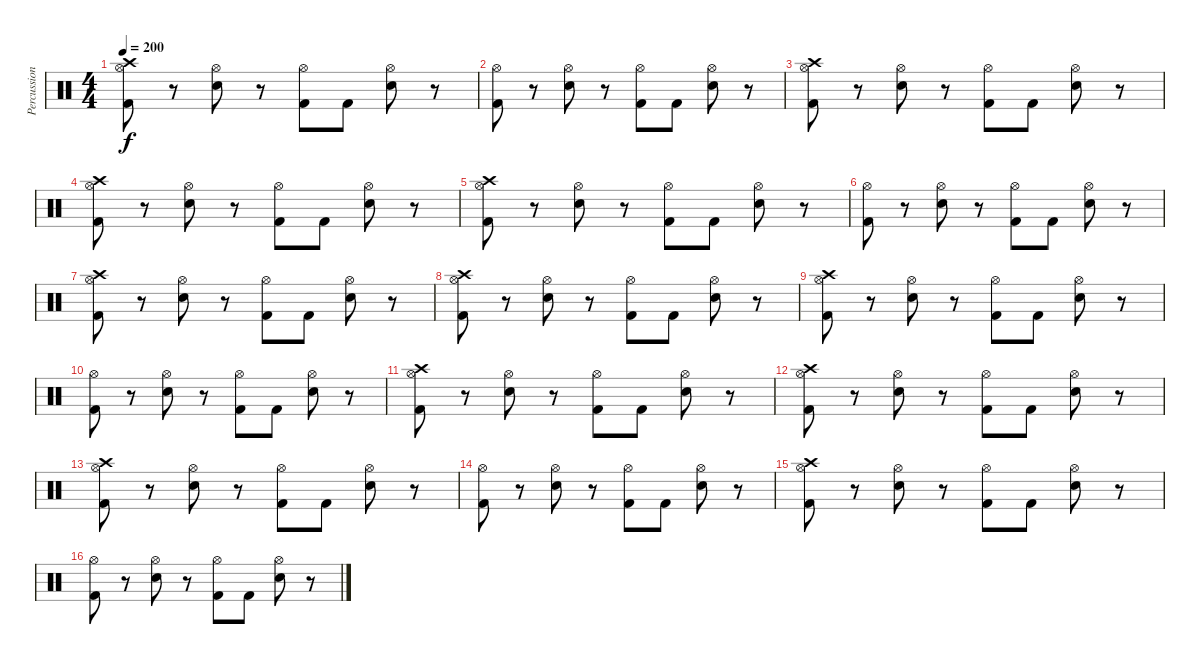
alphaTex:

\track ("Percussioni" "Percussion") {instrument percussion}
\staff {score}
\articulation defaults
\ts (4 4)
\tempo 200
\clef neutral
\ks c
("Crash high (hit)" "Kick (hit) 2" "Hi-Hat (open)").8{dy f} r.8 ("Snare (hit) 2" "Hi-Hat (open)").8 r.8 ("Kick (hit) 2" "Hi-Hat (open)").8 "Kick (hit) 2".8 ("Snare (hit) 2" "Hi-Hat (open)").8 r.8 |
("Kick (hit) 2" "Hi-Hat (open)").8 r.8 ("Snare (hit) 2" "Hi-Hat (open)").8 r.8 ("Kick (hit) 2" "Hi-Hat (open)").8 "Kick (hit) 2".8 ("Snare (hit) 2" "Hi-Hat (open)").8 r.8 |
("Crash high (hit)" "Kick (hit) 2" "Hi-Hat (open)").8 r.8 ("Snare (hit) 2" "Hi-Hat (open)").8 r.8 ("Kick (hit) 2" "Hi-Hat (open)").8 "Kick (hit) 2".8 ("Snare (hit) 2" "Hi-Hat (open)").8 r.8 |
("Crash high (hit)" "Kick (hit) 2" "Hi-Hat (open)").8 r.8 ("Snare (hit) 2" "Hi-Hat (open)").8 r.8 ("Kick (hit) 2" "Hi-Hat (open)").8 "Kick (hit) 2".8 ("Snare (hit) 2" "Hi-Hat (open)").8 r.8 |
("Crash high (hit)" "Kick (hit) 2" "Hi-Hat (open)").8 r.8 ("Snare (hit) 2" "Hi-Hat (open)").8 r.8 ("Kick (hit) 2" "Hi-Hat (open)").8 "Kick (hit) 2".8 ("Snare (hit) 2" "Hi-Hat (open)").8 r.8 |
("Kick (hit) 2" "Hi-Hat (open)").8 r.8 ("Snare (hit) 2" "Hi-Hat (open)").8 r.8 ("Kick (hit) 2" "Hi-Hat (open)").8 "Kick (hit) 2".8 ("Snare (hit) 2" "Hi-Hat (open)").8 r.8 |
("Crash high (hit)" "Kick (hit) 2" "Hi-Hat (open)").8 r.8 ("Snare (hit) 2" "Hi-Hat (open)").8 r.8 ("Kick (hit) 2" "Hi-Hat (open)").8 "Kick (hit) 2".8 ("Snare (hit) 2" "Hi-Hat (open)").8 r.8 |
("Crash high (hit)" "Kick (hit) 2" "Hi-Hat (open)").8 r.8 ("Snare (hit) 2" "Hi-Hat (open)").8 r.8 ("Kick (hit) 2" "Hi-Hat (open)").8 "Kick (hit) 2".8 ("Snare (hit) 2" "Hi-Hat (open)").8 r.8 |
("Crash high (hit)" "Kick (hit) 2" "Hi-Hat (open)").8 r.8 ("Snare (hit) 2" "Hi-Hat (open)").8 r.8 ("Kick (hit) 2" "Hi-Hat (open)").8 "Kick (hit) 2".8 ("Snare (hit) 2" "Hi-Hat (open)").8 r.8 |
("Kick (hit) 2" "Hi-Hat (open)").8 r.8 ("Snare (hit) 2" "Hi-Hat (open)").8 r.8 ("Kick (hit) 2" "Hi-Hat (open)").8 "Kick (hit) 2".8 ("Snare (hit) 2" "Hi-Hat (open)").8 r.8 |
("Crash high (hit)" "Kick (hit) 2" "Hi-Hat (open)").8 r.8 ("Snare (hit) 2" "Hi-Hat (open)").8 r.8 ("Kick (hit) 2" "Hi-Hat (open)").8 "Kick (hit) 2".8 ("Snare (hit) 2" "Hi-Hat (open)").8 r.8 |
("Crash high (hit)" "Kick (hit) 2" "Hi-Hat (open)").8 r.8 ("Snare (hit) 2" "Hi-Hat (open)").8 r.8 ("Kick (hit) 2" "Hi-Hat (open)").8 "Kick (hit) 2".8 ("Snare (hit) 2" "Hi-Hat (open)").8 r.8 |
("Crash high (hit)" "Kick (hit) 2" "Hi-Hat (open)").8 r.8 ("Snare (hit) 2" "Hi-Hat (open)").8 r.8 ("Kick (hit) 2" "Hi-Hat (open)").8 "Kick (hit) 2".8 ("Snare (hit) 2" "Hi-Hat (open)").8 r.8 |
("Kick (hit) 2" "Hi-Hat (open)").8 r.8 ("Snare (hit) 2" "Hi-Hat (open)").8 r.8 ("Kick (hit) 2" "Hi-Hat (open)").8 "Kick (hit) 2".8 ("Snare (hit) 2" "Hi-Hat (open)").8 r.8 |
("Crash high (hit)" "Kick (hit) 2" "Hi-Hat (open)").8 r.8 ("Snare (hit) 2" "Hi-Hat (open)").8 r.8 ("Kick (hit) 2" "Hi-Hat (open)").8 "Kick (hit) 2".8 ("Snare (hit) 2" "Hi-Hat (open)").8 r.8 |
("Kick (hit) 2" "Hi-Hat (open)").8 r.8 ("Snare (hit) 2" "Hi-Hat (open)").8 r.8 ("Kick (hit) 2" "Hi-Hat (open)").8 "Kick (hit) 2".8 ("Snare (hit) 2" "Hi-Hat (open)").8 r.8
